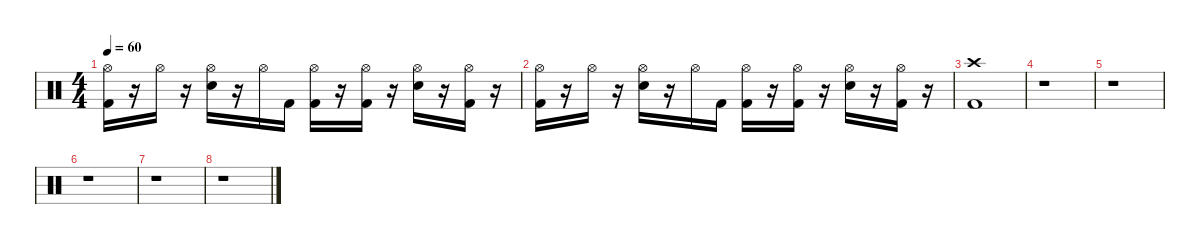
\defaultSystemsLayout 4
\hideDynamics
\bracketExtendMode nobrackets
\singleTrackTrackNamePolicy hidden
\multiTrackTrackNamePolicy hidden
\firstSystemTrackNameMode fullname
\firstSystemTrackNameOrientation horizontal
\otherSystemsTrackNameOrientation horizontal
\track ("Gene Hoglan" "drm.") {instrument percussion}
\staff {score}
\articulation defaults
\ts (4 4)
\tempo 60
\clef neutral
\ks c
("Hi-Hat (open)" "Kick (hit) 2").16{dy f beam Down} r.16{beam Down} "Hi-Hat (open)".16{beam Down} r.16{beam Down} ("Hi-Hat (open)" "Snare (hit) 2").16{beam Down} r.16{beam Down} "Hi-Hat (open)".16{beam Down} "Kick (hit) 2".16{beam Down} ("Hi-Hat (open)" "Kick (hit) 2").16{beam Down} r.16{beam Down} ("Hi-Hat (open)" "Kick (hit) 2").16{beam Down} r.16{beam Down} ("Hi-Hat (open)" "Snare (hit) 2").16{beam Down} r.16{beam Down} ("Hi-Hat (open)" "Kick (hit) 2").16{beam Down} r.16{beam Down} |
("Hi-Hat (open)" "Kick (hit) 2").16{beam Down} r.16{beam Down} "Hi-Hat (open)".16{beam Down} r.16{beam Down} ("Hi-Hat (open)" "Snare (hit) 2").16{beam Down} r.16{beam Down} "Hi-Hat (open)".16{beam Down} "Kick (hit) 2".16{beam Down} ("Hi-Hat (open)" "Kick (hit) 2").16{beam Down} r.16{beam Down} ("Hi-Hat (open)" "Kick (hit) 2").16{beam Down} r.16{beam Down} ("Hi-Hat (open)" "Snare (hit) 2").16{beam Down} r.16{beam Down} ("Hi-Hat (open)" "Kick (hit) 2").16{beam Down} r.16{beam Down} |
("Crash high (hit)" "Kick (hit) 2").1{beam Down} |
r.1{beam Down} |
r.1{beam Down} |
r.1{beam Down} |
r.1{beam Down} |
r.1{beam Down}
